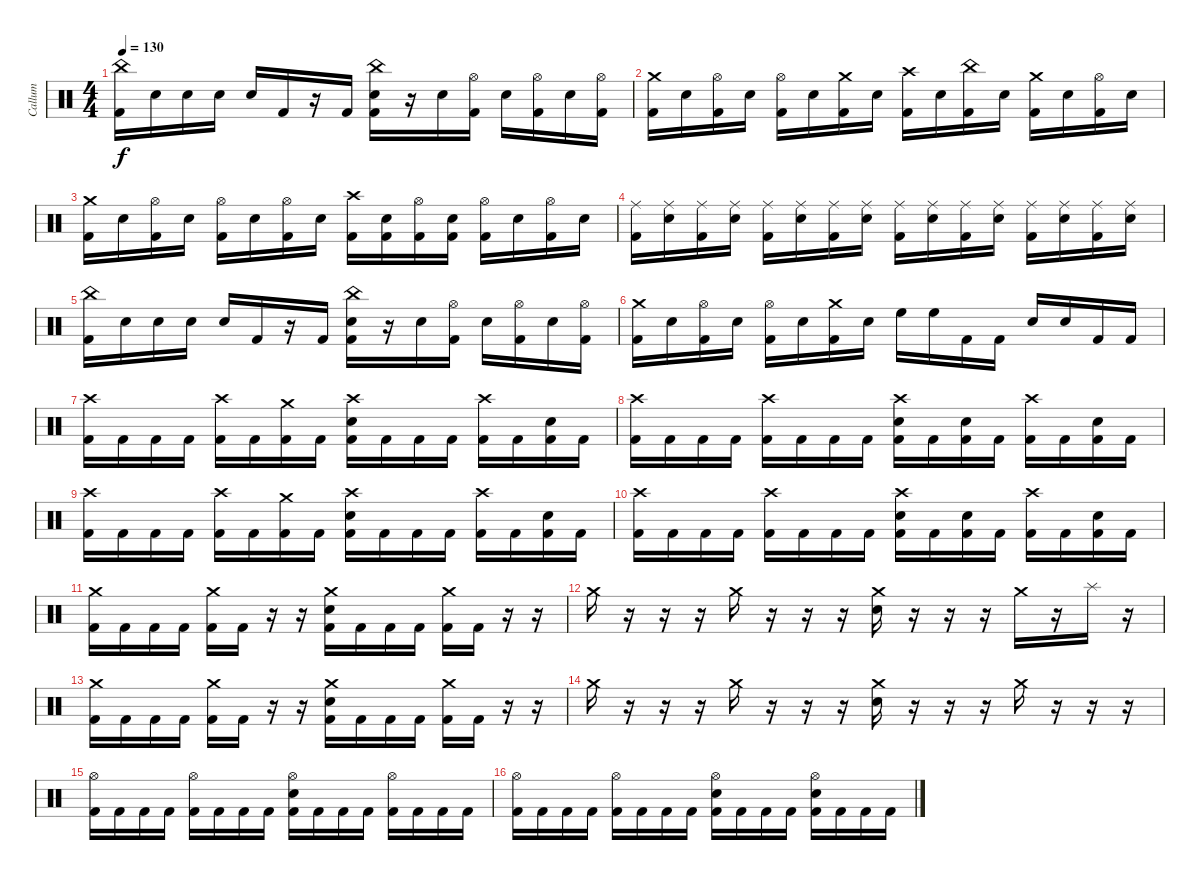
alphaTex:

\track ("Callum" "Callum") {instrument percussion}
\staff {score}
\articulation defaults
\ts (4 4)
\tempo 130
\clef neutral
\ks c
("China (hit)" "Kick (hit) 2").16{dy f} "Electric Snare (hit)".16 "Electric Snare (hit)".16 "Electric Snare (hit)".16 "Electric Snare (hit)".16 "Kick (hit) 2".16 r.16 "Kick (hit) 2".16 ("China (hit)" "Electric Snare (hit)" "Kick (hit) 2").16 r.16 "Electric Snare (hit)".16 ("Hi-Hat (open)" "Kick (hit) 2").16 "Electric Snare (hit)".16 ("Hi-Hat (open)" "Kick (hit) 2").16 "Electric Snare (hit)".16 ("Hi-Hat (open)" "Kick (hit) 2").16 |
("Crash medium (hit)" "Kick (hit) 2").16 "Electric Snare (hit)".16 ("Hi-Hat (open)" "Kick (hit) 2").16 "Electric Snare (hit)".16 ("Hi-Hat (open)" "Kick (hit) 2").16 "Electric Snare (hit)".16 ("Crash medium (hit)" "Kick (hit) 2").16 "Electric Snare (hit)".16 ("Crash high (hit)" "Kick (hit) 2").16 "Electric Snare (hit)".16 ("China (hit)" "Kick (hit) 2").16 "Electric Snare (hit)".16 ("Crash medium (hit)" "Kick (hit) 2").16 "Electric Snare (hit)".16 ("Hi-Hat (open)" "Kick (hit) 2").16 "Electric Snare (hit)".16 |
("Crash medium (hit)" "Kick (hit) 2").16 "Electric Snare (hit)".16 ("Hi-Hat (open)" "Kick (hit) 2").16 "Electric Snare (hit)".16 ("Hi-Hat (open)" "Kick (hit) 2").16 "Electric Snare (hit)".16 ("Hi-Hat (open)" "Kick (hit) 2").16 "Electric Snare (hit)".16 ("Crash high (hit)" "Kick (hit) 2").16 ("Electric Snare (hit)" "Kick (hit) 2").16 ("Hi-Hat (open)" "Kick (hit) 2").16 ("Electric Snare (hit)" "Kick (hit) 2").16 ("Hi-Hat (open)" "Kick (hit) 2").16 "Electric Snare (hit)".16 ("Hi-Hat (open)" "Kick (hit) 2").16 "Electric Snare (hit)".16 |
("Ride (middle)" "Kick (hit) 2").16 ("Ride (middle)" "Electric Snare (hit)").16 ("Ride (middle)" "Kick (hit) 2").16 ("Ride (middle)" "Electric Snare (hit)").16 ("Ride (middle)" "Kick (hit) 2").16 ("Ride (middle)" "Electric Snare (hit)").16 ("Ride (middle)" "Kick (hit) 2").16 ("Ride (middle)" "Electric Snare (hit)").16 ("Ride (middle)" "Kick (hit) 2").16 ("Ride (middle)" "Electric Snare (hit)").16 ("Ride (middle)" "Kick (hit) 2").16 ("Ride (middle)" "Electric Snare (hit)").16 ("Ride (middle)" "Kick (hit) 2").16 ("Ride (middle)" "Electric Snare (hit)").16 ("Ride (middle)" "Kick (hit) 2").16 ("Ride (middle)" "Electric Snare (hit)").16 |
("China (hit)" "Kick (hit) 2").16 "Electric Snare (hit)".16 "Electric Snare (hit)".16 "Electric Snare (hit)".16 "Electric Snare (hit)".16 "Kick (hit) 2".16 r.16 "Kick (hit) 2".16 ("China (hit)" "Electric Snare (hit)" "Kick (hit) 2").16 r.16 "Electric Snare (hit)".16 ("Hi-Hat (open)" "Kick (hit) 2").16 "Electric Snare (hit)".16 ("Hi-Hat (open)" "Kick (hit) 2").16 "Electric Snare (hit)".16 ("Hi-Hat (open)" "Kick (hit) 2").16 |
("Crash medium (hit)" "Kick (hit) 2").16 "Electric Snare (hit)".16 ("Hi-Hat (open)" "Kick (hit) 2").16 "Electric Snare (hit)".16 ("Hi-Hat (open)" "Kick (hit) 2").16 "Electric Snare (hit)".16 ("Crash medium (hit)" "Kick (hit) 2").16 "Electric Snare (hit)".16 "High Floor Tom (hit)".16 "High Floor Tom (hit)".16 "Kick (hit) 2".16 "Kick (hit) 2".16 "Electric Snare (hit)".16 "Electric Snare (hit)".16 "Kick (hit) 2".16 "Kick (hit) 2".16 |
("Crash high (hit)" "Kick (hit) 2").16 "Kick (hit) 2".16 "Kick (hit) 2".16 "Kick (hit) 2".16 ("Crash high (hit)" "Kick (hit) 2").16 "Kick (hit) 2".16 ("Crash medium (hit)" "Kick (hit) 2").16 "Kick (hit) 2".16 ("Crash high (hit)" "Electric Snare (hit)" "Kick (hit) 2").16 "Kick (hit) 2".16 "Kick (hit) 2".16 "Kick (hit) 2".16 ("Crash high (hit)" "Kick (hit) 2").16 "Kick (hit) 2".16 ("Electric Snare (hit)" "Kick (hit) 2").16 "Kick (hit) 2".16 |
("Crash high (hit)" "Kick (hit) 2").16 "Kick (hit) 2".16 "Kick (hit) 2".16 "Kick (hit) 2".16 ("Crash high (hit)" "Kick (hit) 2").16 "Kick (hit) 2".16 "Kick (hit) 2".16 "Kick (hit) 2".16 ("Crash high (hit)" "Electric Snare (hit)" "Kick (hit) 2").16 "Kick (hit) 2".16 ("Electric Snare (hit)" "Kick (hit) 2").16 "Kick (hit) 2".16 ("Crash high (hit)" "Kick (hit) 2").16 "Kick (hit) 2".16 ("Electric Snare (hit)" "Kick (hit) 2").16 "Kick (hit) 2".16 |
("Crash high (hit)" "Kick (hit) 2").16 "Kick (hit) 2".16 "Kick (hit) 2".16 "Kick (hit) 2".16 ("Crash high (hit)" "Kick (hit) 2").16 "Kick (hit) 2".16 ("Crash medium (hit)" "Kick (hit) 2").16 "Kick (hit) 2".16 ("Crash high (hit)" "Electric Snare (hit)" "Kick (hit) 2").16 "Kick (hit) 2".16 "Kick (hit) 2".16 "Kick (hit) 2".16 ("Crash high (hit)" "Kick (hit) 2").16 "Kick (hit) 2".16 ("Electric Snare (hit)" "Kick (hit) 2").16 "Kick (hit) 2".16 |
("Crash high (hit)" "Kick (hit) 2").16 "Kick (hit) 2".16 "Kick (hit) 2".16 "Kick (hit) 2".16 ("Crash high (hit)" "Kick (hit) 2").16 "Kick (hit) 2".16 "Kick (hit) 2".16 "Kick (hit) 2".16 ("Crash high (hit)" "Electric Snare (hit)" "Kick (hit) 2").16 "Kick (hit) 2".16 ("Electric Snare (hit)" "Kick (hit) 2").16 "Kick (hit) 2".16 ("Crash high (hit)" "Kick (hit) 2").16 "Kick (hit) 2".16 ("Electric Snare (hit)" "Kick (hit) 2").16 "Kick (hit) 2".16 |
("Crash medium (hit)" "Kick (hit) 2").16 "Kick (hit) 2".16 "Kick (hit) 2".16 "Kick (hit) 2".16 ("Crash medium (hit)" "Kick (hit) 2").16 "Kick (hit) 2".16 r.16 r.16 ("Crash medium (hit)" "Electric Snare (hit)" "Kick (hit) 2").16 "Kick (hit) 2".16 "Kick (hit) 2".16 "Kick (hit) 2".16 ("Crash medium (hit)" "Kick (hit) 2").16 "Kick (hit) 2".16 r.16 r.16 |
"Crash medium (hit)".16 r.16 r.16 r.16 "Crash medium (hit)".16 r.16 r.16 r.16 ("Crash medium (hit)" "Electric Snare (hit)").16 r.16 r.16 r.16 "Crash medium (hit)".16 r.16 "Splash (hit)".16 r.16 |
("Crash medium (hit)" "Kick (hit) 2").16 "Kick (hit) 2".16 "Kick (hit) 2".16 "Kick (hit) 2".16 ("Crash medium (hit)" "Kick (hit) 2").16 "Kick (hit) 2".16 r.16 r.16 ("Crash medium (hit)" "Electric Snare (hit)" "Kick (hit) 2").16 "Kick (hit) 2".16 "Kick (hit) 2".16 "Kick (hit) 2".16 ("Crash medium (hit)" "Kick (hit) 2").16 "Kick (hit) 2".16 r.16 r.16 |
"Crash medium (hit)".16 r.16 r.16 r.16 "Crash medium (hit)".16 r.16 r.16 r.16 ("Crash medium (hit)" "Electric Snare (hit)").16 r.16 r.16 r.16 "Crash medium (hit)".16 r.16 r.16 r.16 |
("Hi-Hat (open)" "Kick (hit) 2").16 "Kick (hit) 2".16 "Kick (hit) 2".16 "Kick (hit) 2".16 ("Hi-Hat (open)" "Kick (hit) 2").16 "Kick (hit) 2".16 "Kick (hit) 2".16 "Kick (hit) 2".16 ("Hi-Hat (open)" "Electric Snare (hit)" "Kick (hit) 2").16 "Kick (hit) 2".16 "Kick (hit) 2".16 "Kick (hit) 2".16 ("Hi-Hat (open)" "Kick (hit) 2").16 "Kick (hit) 2".16 "Kick (hit) 2".16 "Kick (hit) 2".16 |
("Hi-Hat (open)" "Kick (hit) 2").16 "Kick (hit) 2".16 "Kick (hit) 2".16 "Kick (hit) 2".16 ("Hi-Hat (open)" "Kick (hit) 2").16 "Kick (hit) 2".16 "Kick (hit) 2".16 "Kick (hit) 2".16 ("Hi-Hat (open)" "Electric Snare (hit)" "Kick (hit) 2").16 "Kick (hit) 2".16 "Kick (hit) 2".16 "Kick (hit) 2".16 ("Hi-Hat (open)" "Electric Snare (hit)" "Kick (hit) 2").16 "Kick (hit) 2".16 "Kick (hit) 2".16 "Kick (hit) 2".16
